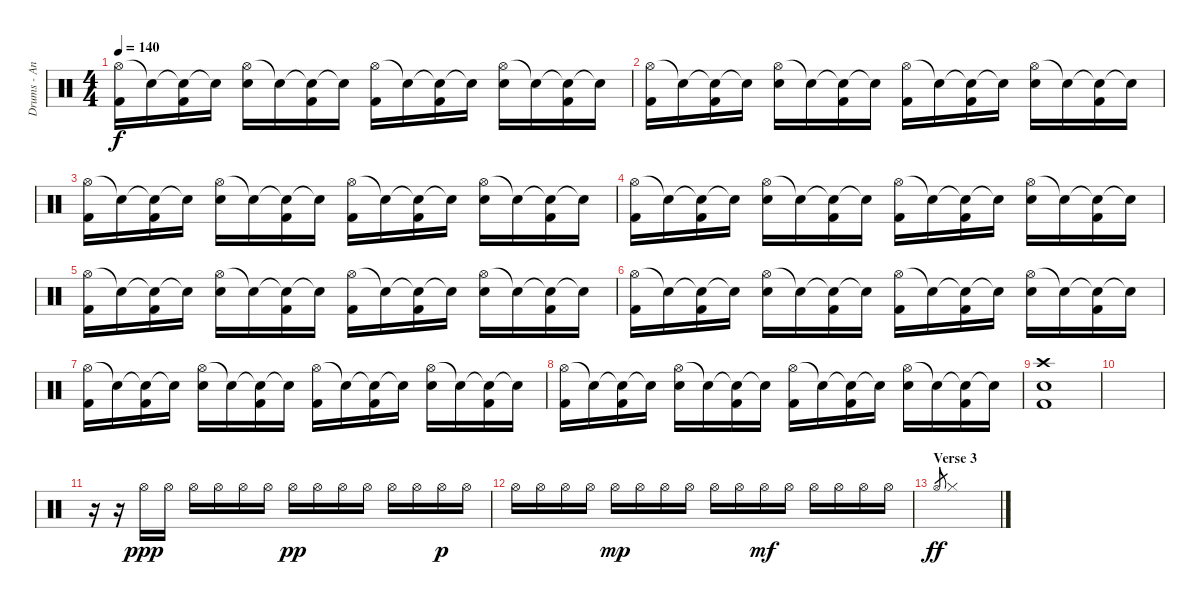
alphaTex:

\track ("Drums - Andy Strachan" "Drums - An") {instrument percussion}
\staff {score}
\articulation defaults
\ts (4 4)
\tempo 140
\clef neutral
\ks c
("Hi-Hat (open)" "Kick (hit) 2").16{dy f} "Snare (hit)"{t}.16 ("Snare (hit)"{t} "Kick (hit) 2").16 "Snare (hit)"{t}.16 ("Hi-Hat (open)" "Electric Snare (hit)").16 "Snare (hit)"{t}.16 ("Snare (hit)"{t} "Kick (hit) 2").16 "Snare (hit)"{t}.16 ("Hi-Hat (open)" "Kick (hit) 2").16 "Snare (hit)"{t}.16 ("Snare (hit)"{t} "Kick (hit) 2").16 "Snare (hit)"{t}.16 ("Hi-Hat (open)" "Electric Snare (hit)").16 "Snare (hit)"{t}.16 ("Snare (hit)"{t} "Kick (hit) 2").16 "Snare (hit)"{t}.16 |
("Hi-Hat (open)" "Kick (hit) 2").16 "Snare (hit)"{t}.16 ("Snare (hit)"{t} "Kick (hit) 2").16 "Snare (hit)"{t}.16 ("Hi-Hat (open)" "Electric Snare (hit)").16 "Snare (hit)"{t}.16 ("Snare (hit)"{t} "Kick (hit) 2").16 "Snare (hit)"{t}.16 ("Hi-Hat (open)" "Kick (hit) 2").16 "Snare (hit)"{t}.16 ("Snare (hit)"{t} "Kick (hit) 2").16 "Snare (hit)"{t}.16 ("Hi-Hat (open)" "Electric Snare (hit)").16 "Snare (hit)"{t}.16 ("Snare (hit)"{t} "Kick (hit) 2").16 "Snare (hit)"{t}.16 |
("Hi-Hat (open)" "Kick (hit) 2").16 "Snare (hit)"{t}.16 ("Snare (hit)"{t} "Kick (hit) 2").16 "Snare (hit)"{t}.16 ("Hi-Hat (open)" "Electric Snare (hit)").16 "Snare (hit)"{t}.16 ("Snare (hit)"{t} "Kick (hit) 2").16 "Snare (hit)"{t}.16 ("Hi-Hat (open)" "Kick (hit) 2").16 "Snare (hit)"{t}.16 ("Snare (hit)"{t} "Kick (hit) 2").16 "Snare (hit)"{t}.16 ("Hi-Hat (open)" "Electric Snare (hit)").16 "Snare (hit)"{t}.16 ("Snare (hit)"{t} "Kick (hit) 2").16 "Snare (hit)"{t}.16 |
("Hi-Hat (open)" "Kick (hit) 2").16 "Snare (hit)"{t}.16 ("Snare (hit)"{t} "Kick (hit) 2").16 "Snare (hit)"{t}.16 ("Hi-Hat (open)" "Electric Snare (hit)").16 "Snare (hit)"{t}.16 ("Snare (hit)"{t} "Kick (hit) 2").16 "Snare (hit)"{t}.16 ("Hi-Hat (open)" "Kick (hit) 2").16 "Snare (hit)"{t}.16 ("Snare (hit)"{t} "Kick (hit) 2").16 "Snare (hit)"{t}.16 ("Hi-Hat (open)" "Electric Snare (hit)").16 "Snare (hit)"{t}.16 ("Snare (hit)"{t} "Kick (hit) 2").16 "Snare (hit)"{t}.16 |
("Hi-Hat (open)" "Kick (hit) 2").16 "Snare (hit)"{t}.16 ("Snare (hit)"{t} "Kick (hit) 2").16 "Snare (hit)"{t}.16 ("Hi-Hat (open)" "Electric Snare (hit)").16 "Snare (hit)"{t}.16 ("Snare (hit)"{t} "Kick (hit) 2").16 "Snare (hit)"{t}.16 ("Hi-Hat (open)" "Kick (hit) 2").16 "Snare (hit)"{t}.16 ("Snare (hit)"{t} "Kick (hit) 2").16 "Snare (hit)"{t}.16 ("Hi-Hat (open)" "Electric Snare (hit)").16 "Snare (hit)"{t}.16 ("Snare (hit)"{t} "Kick (hit) 2").16 "Snare (hit)"{t}.16 |
("Hi-Hat (open)" "Kick (hit) 2").16 "Snare (hit)"{t}.16 ("Snare (hit)"{t} "Kick (hit) 2").16 "Snare (hit)"{t}.16 ("Hi-Hat (open)" "Electric Snare (hit)").16 "Snare (hit)"{t}.16 ("Snare (hit)"{t} "Kick (hit) 2").16 "Snare (hit)"{t}.16 ("Hi-Hat (open)" "Kick (hit) 2").16 "Snare (hit)"{t}.16 ("Snare (hit)"{t} "Kick (hit) 2").16 "Snare (hit)"{t}.16 ("Hi-Hat (open)" "Electric Snare (hit)").16 "Snare (hit)"{t}.16 ("Snare (hit)"{t} "Kick (hit) 2").16 "Snare (hit)"{t}.16 |
("Hi-Hat (open)" "Kick (hit) 2").16 "Snare (hit)"{t}.16 ("Snare (hit)"{t} "Kick (hit) 2").16 "Snare (hit)"{t}.16 ("Hi-Hat (open)" "Electric Snare (hit)").16 "Snare (hit)"{t}.16 ("Snare (hit)"{t} "Kick (hit) 2").16 "Snare (hit)"{t}.16 ("Hi-Hat (open)" "Kick (hit) 2").16 "Snare (hit)"{t}.16 ("Snare (hit)"{t} "Kick (hit) 2").16 "Snare (hit)"{t}.16 ("Hi-Hat (open)" "Electric Snare (hit)").16 "Snare (hit)"{t}.16 ("Snare (hit)"{t} "Kick (hit) 2").16 "Snare (hit)"{t}.16 |
("Hi-Hat (open)" "Kick (hit) 2").16 "Snare (hit)"{t}.16 ("Snare (hit)"{t} "Kick (hit) 2").16 "Snare (hit)"{t}.16 ("Hi-Hat (open)" "Electric Snare (hit)").16 "Snare (hit)"{t}.16 ("Snare (hit)"{t} "Kick (hit) 2").16 "Snare (hit)"{t}.16 ("Hi-Hat (open)" "Kick (hit) 2").16 "Snare (hit)"{t}.16 ("Snare (hit)"{t} "Kick (hit) 2").16 "Snare (hit)"{t}.16 ("Hi-Hat (open)" "Electric Snare (hit)").16 "Snare (hit)"{t}.16 ("Snare (hit)"{t} "Kick (hit) 2").16 "Snare (hit)"{t}.16 |
("Kick (hit) 2" "Electric Snare (hit)" "Crash high (hit)").1 |
|
r.16 r.16 "Hi-Hat (open)".16{dy ppp} "Hi-Hat (open)".16 "Hi-Hat (open)".16 "Hi-Hat (open)".16 "Hi-Hat (open)".16 "Hi-Hat (open)".16 "Hi-Hat (open)".16{dy pp} "Hi-Hat (open)".16 "Hi-Hat (open)".16 "Hi-Hat (open)".16 "Hi-Hat (open)".16 "Hi-Hat (open)".16 "Hi-Hat (open)".16{dy p} "Hi-Hat (open)".16 |
"Hi-Hat (open)".16 "Hi-Hat (open)".16 "Hi-Hat (open)".16 "Hi-Hat (open)".16 "Hi-Hat (open)".16{dy mp} "Hi-Hat (open)".16 "Hi-Hat (open)".16 "Hi-Hat (open)".16 "Hi-Hat (open)".16 "Hi-Hat (open)".16 "Hi-Hat (open)".16{dy mf} "Hi-Hat (open)".16 "Hi-Hat (open)".16 "Hi-Hat (open)".16 "Hi-Hat (open)".16 "Hi-Hat (open)".16 |
\section ("" "Verse 3")
"Hi-Hat (open)".8{gr dy ff} "Hi-Hat (closed)".1
